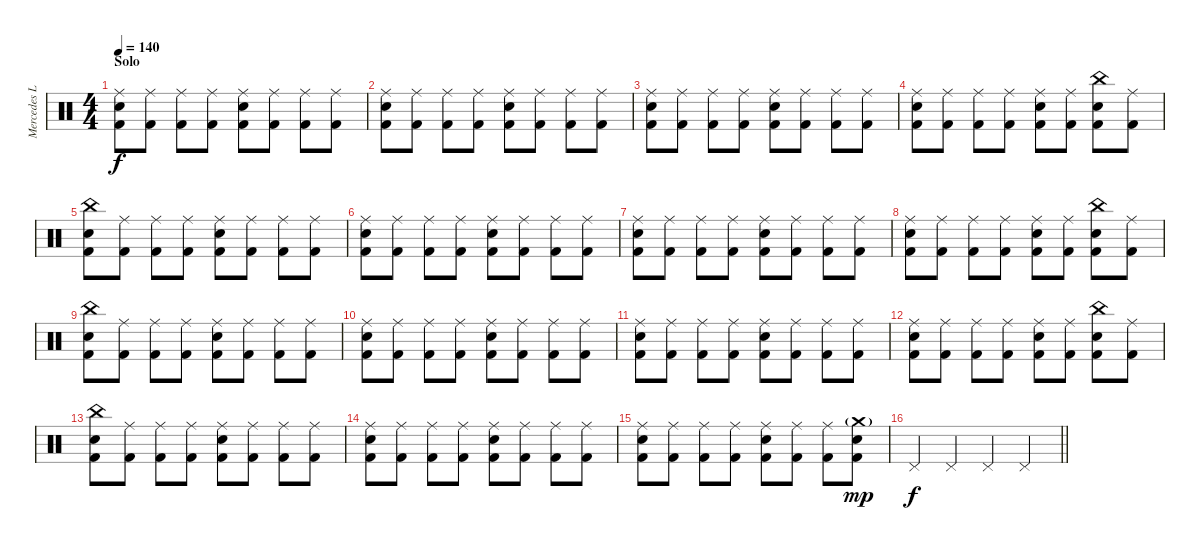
\track ("Mercedes Lander" "Mercedes L") {instrument percussion}
\staff {score}
\articulation defaults
\ts (4 4)
\section ("" "Solo")
\tempo 140
\clef neutral
\ks c
("Ride (middle)" "Snare (hit) 2" "Kick (hit) 2").8{dy f} ("Ride (middle)" "Kick (hit) 2").8 ("Ride (middle)" "Kick (hit) 2").8 ("Ride (middle)" "Kick (hit) 2").8 ("Ride (middle)" "Snare (hit) 2" "Kick (hit) 2").8 ("Ride (middle)" "Kick (hit) 2").8 ("Ride (middle)" "Kick (hit) 2").8 ("Ride (middle)" "Kick (hit) 2").8 |
("Ride (middle)" "Snare (hit) 2" "Kick (hit) 2").8 ("Ride (middle)" "Kick (hit) 2").8 ("Ride (middle)" "Kick (hit) 2").8 ("Ride (middle)" "Kick (hit) 2").8 ("Ride (middle)" "Snare (hit) 2" "Kick (hit) 2").8 ("Ride (middle)" "Kick (hit) 2").8 ("Ride (middle)" "Kick (hit) 2").8 ("Ride (middle)" "Kick (hit) 2").8 |
("Ride (middle)" "Snare (hit) 2" "Kick (hit) 2").8 ("Ride (middle)" "Kick (hit) 2").8 ("Ride (middle)" "Kick (hit) 2").8 ("Ride (middle)" "Kick (hit) 2").8 ("Ride (middle)" "Snare (hit) 2" "Kick (hit) 2").8 ("Ride (middle)" "Kick (hit) 2").8 ("Ride (middle)" "Kick (hit) 2").8 ("Ride (middle)" "Kick (hit) 2").8 |
("Ride (middle)" "Snare (hit) 2" "Kick (hit) 2").8 ("Ride (middle)" "Kick (hit) 2").8 ("Ride (middle)" "Kick (hit) 2").8 ("Ride (middle)" "Kick (hit) 2").8 ("Ride (middle)" "Snare (hit) 2" "Kick (hit) 2").8 ("Ride (middle)" "Kick (hit) 2").8 ("China (hit)" "Snare (hit) 2" "Kick (hit) 2").8 ("Ride (middle)" "Kick (hit) 2").8 |
("China (hit)" "Snare (hit) 2" "Kick (hit) 2").8 ("Ride (middle)" "Kick (hit) 2").8 ("Ride (middle)" "Kick (hit) 2").8 ("Ride (middle)" "Kick (hit) 2").8 ("Ride (middle)" "Snare (hit) 2" "Kick (hit) 2").8 ("Ride (middle)" "Kick (hit) 2").8 ("Ride (middle)" "Kick (hit) 2").8 ("Ride (middle)" "Kick (hit) 2").8 |
("Ride (middle)" "Snare (hit) 2" "Kick (hit) 2").8 ("Ride (middle)" "Kick (hit) 2").8 ("Ride (middle)" "Kick (hit) 2").8 ("Ride (middle)" "Kick (hit) 2").8 ("Ride (middle)" "Snare (hit) 2" "Kick (hit) 2").8 ("Ride (middle)" "Kick (hit) 2").8 ("Ride (middle)" "Kick (hit) 2").8 ("Ride (middle)" "Kick (hit) 2").8 |
("Ride (middle)" "Snare (hit) 2" "Kick (hit) 2").8 ("Ride (middle)" "Kick (hit) 2").8 ("Ride (middle)" "Kick (hit) 2").8 ("Ride (middle)" "Kick (hit) 2").8 ("Ride (middle)" "Snare (hit) 2" "Kick (hit) 2").8 ("Ride (middle)" "Kick (hit) 2").8 ("Ride (middle)" "Kick (hit) 2").8 ("Ride (middle)" "Kick (hit) 2").8 |
("Ride (middle)" "Snare (hit) 2" "Kick (hit) 2").8 ("Ride (middle)" "Kick (hit) 2").8 ("Ride (middle)" "Kick (hit) 2").8 ("Ride (middle)" "Kick (hit) 2").8 ("Ride (middle)" "Snare (hit) 2" "Kick (hit) 2").8 ("Ride (middle)" "Kick (hit) 2").8 ("China (hit)" "Snare (hit) 2" "Kick (hit) 2").8 ("Ride (middle)" "Kick (hit) 2").8 |
("China (hit)" "Snare (hit) 2" "Kick (hit) 2").8 ("Ride (middle)" "Kick (hit) 2").8 ("Ride (middle)" "Kick (hit) 2").8 ("Ride (middle)" "Kick (hit) 2").8 ("Ride (middle)" "Snare (hit) 2" "Kick (hit) 2").8 ("Ride (middle)" "Kick (hit) 2").8 ("Ride (middle)" "Kick (hit) 2").8 ("Ride (middle)" "Kick (hit) 2").8 |
("Ride (middle)" "Snare (hit) 2" "Kick (hit) 2").8 ("Ride (middle)" "Kick (hit) 2").8 ("Ride (middle)" "Kick (hit) 2").8 ("Ride (middle)" "Kick (hit) 2").8 ("Ride (middle)" "Snare (hit) 2" "Kick (hit) 2").8 ("Ride (middle)" "Kick (hit) 2").8 ("Ride (middle)" "Kick (hit) 2").8 ("Ride (middle)" "Kick (hit) 2").8 |
("Ride (middle)" "Snare (hit) 2" "Kick (hit) 2").8 ("Ride (middle)" "Kick (hit) 2").8 ("Ride (middle)" "Kick (hit) 2").8 ("Ride (middle)" "Kick (hit) 2").8 ("Ride (middle)" "Snare (hit) 2" "Kick (hit) 2").8 ("Ride (middle)" "Kick (hit) 2").8 ("Ride (middle)" "Kick (hit) 2").8 ("Ride (middle)" "Kick (hit) 2").8 |
("Ride (middle)" "Snare (hit) 2" "Kick (hit) 2").8 ("Ride (middle)" "Kick (hit) 2").8 ("Ride (middle)" "Kick (hit) 2").8 ("Ride (middle)" "Kick (hit) 2").8 ("Ride (middle)" "Snare (hit) 2" "Kick (hit) 2").8 ("Ride (middle)" "Kick (hit) 2").8 ("China (hit)" "Snare (hit) 2" "Kick (hit) 2").8 ("Ride (middle)" "Kick (hit) 2").8 |
("China (hit)" "Snare (hit) 2" "Kick (hit) 2").8 ("Ride (middle)" "Kick (hit) 2").8 ("Ride (middle)" "Kick (hit) 2").8 ("Ride (middle)" "Kick (hit) 2").8 ("Ride (middle)" "Snare (hit) 2" "Kick (hit) 2").8 ("Ride (middle)" "Kick (hit) 2").8 ("Ride (middle)" "Kick (hit) 2").8 ("Ride (middle)" "Kick (hit) 2").8 |
("Ride (middle)" "Snare (hit) 2" "Kick (hit) 2").8 ("Ride (middle)" "Kick (hit) 2").8 ("Ride (middle)" "Kick (hit) 2").8 ("Ride (middle)" "Kick (hit) 2").8 ("Ride (middle)" "Snare (hit) 2" "Kick (hit) 2").8 ("Ride (middle)" "Kick (hit) 2").8 ("Ride (middle)" "Kick (hit) 2").8 ("Ride (middle)" "Kick (hit) 2").8 |
("Ride (middle)" "Snare (hit) 2" "Kick (hit) 2").8 ("Ride (middle)" "Kick (hit) 2").8 ("Ride (middle)" "Kick (hit) 2").8 ("Ride (middle)" "Kick (hit) 2").8 ("Ride (middle)" "Snare (hit) 2" "Kick (hit) 2").8 ("Ride (middle)" "Kick (hit) 2").8 ("Ride (middle)" "Kick (hit) 2").8 ("Crash medium (hit)"{g} "Snare (hit) 2" "Kick (hit) 2").8{dy mp} |
\barLineRight lightlight "Pedal Hi-Hat (hit)".4{dy f} "Pedal Hi-Hat (hit)".4 "Pedal Hi-Hat (hit)".4 "Pedal Hi-Hat (hit)".4
